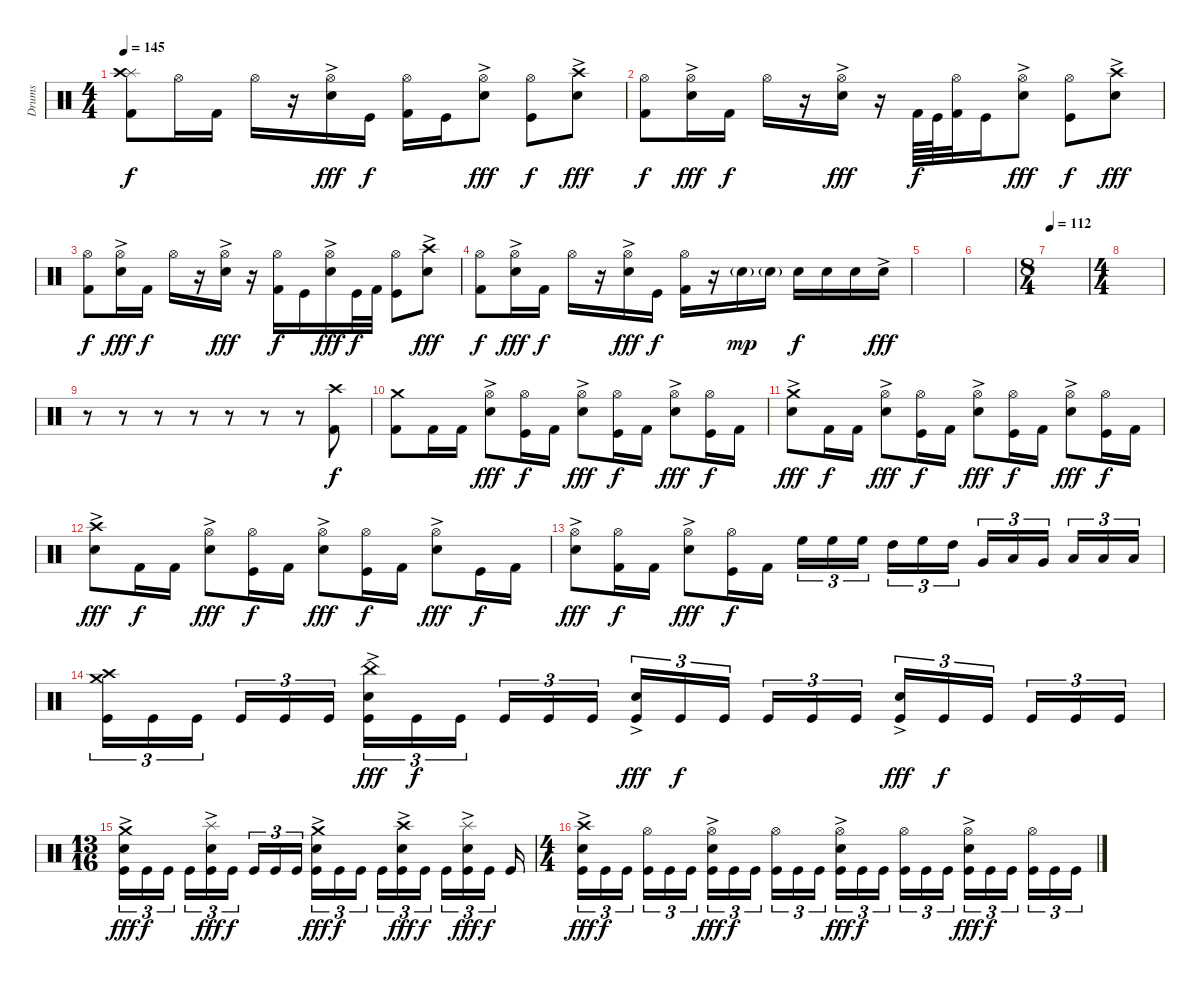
\track ("Drums" "Drums") {instrument percussion}
\staff {score}
\articulation defaults
\ts (4 4)
\tempo 145
\clef neutral
\ks c
("Splash (hit)" "Crash high (hit)" "Kick (hit) 2").8{dy f} "Hi-Hat (open)".16 "Kick (hit) 2".16 "Hi-Hat (open)".16 r.16 ("Hi-Hat (open)" "Electric Snare (hit)"{ac}).16{dy fff} "Kick (hit)".16{dy f} ("Hi-Hat (open)" "Kick (hit) 2").16 "Kick (hit)".16 ("Hi-Hat (open)" "Electric Snare (hit)"{ac}).8{dy fff} ("Hi-Hat (open)" "Kick (hit)").8{dy f} ("Crash high (hit)" "Electric Snare (hit)"{ac}).8{dy fff} |
("Hi-Hat (open)" "Kick (hit) 2").8{dy f} ("Hi-Hat (open)" "Electric Snare (hit)"{ac}).16{dy fff} "Kick (hit) 2".16{dy f} "Hi-Hat (open)".16 r.16 ("Hi-Hat (open)" "Electric Snare (hit)"{ac}).16{dy fff} r.16 "Kick (hit) 2".64{dy f} "Kick (hit)".64 ("Hi-Hat (open)" "Kick (hit) 2").32 "Kick (hit)".16 ("Hi-Hat (open)" "Electric Snare (hit)"{ac}).8{dy fff} ("Hi-Hat (open)" "Kick (hit)").8{dy f} ("Crash high (hit)" "Electric Snare (hit)"{ac}).8{dy fff} |
("Hi-Hat (open)" "Kick (hit) 2").8{dy f} ("Hi-Hat (open)" "Electric Snare (hit)"{ac}).16{dy fff} "Kick (hit) 2".16{dy f} "Hi-Hat (open)".16 r.16 ("Hi-Hat (open)" "Electric Snare (hit)"{ac}).16{dy fff} r.16 ("Hi-Hat (open)" "Kick (hit) 2").16{dy f} "Kick (hit)".16 ("Hi-Hat (open)" "Electric Snare (hit)"{ac}).16{dy fff} "Kick (hit)".32{dy f} "Kick (hit) 2".32 ("Hi-Hat (open)" "Kick (hit)").8 ("Crash high (hit)" "Electric Snare (hit)"{ac}).8{dy fff} |
("Hi-Hat (open)" "Kick (hit) 2").8{dy f} ("Hi-Hat (open)" "Electric Snare (hit)"{ac}).16{dy fff} "Kick (hit) 2".16{dy f} "Hi-Hat (open)".16 r.16 ("Hi-Hat (open)" "Electric Snare (hit)"{ac}).16{dy fff} "Kick (hit)".16{dy f} ("Hi-Hat (open)" "Kick (hit) 2").16 r.16 "Electric Snare (hit)"{g}.16{dy mp} "Electric Snare (hit)"{g}.16 "Electric Snare (hit)".16{dy f} "Electric Snare (hit)".16 "Electric Snare (hit)".16 "Electric Snare (hit)"{ac}.16{dy fff} |
|
|
\ts (8 4)
\tempo 112
|
\ts (4 4)
|
r.8 r.8 r.8 r.8 r.8 r.8 r.8 ("Crash high (hit)" "Kick (hit) 2").8{dy f} |
("Crash medium (hit)" "Kick (hit) 2").8 "Kick (hit) 2".16 "Kick (hit) 2".16 ("Hi-Hat (open)" "Electric Snare (hit)"{ac}).8{dy fff} ("Hi-Hat (open)" "Kick (hit)").16{dy f} "Kick (hit) 2".16 ("Hi-Hat (open)" "Electric Snare (hit)"{ac}).8{dy fff} ("Hi-Hat (open)" "Kick (hit)").16{dy f} "Kick (hit) 2".16 ("Hi-Hat (open)" "Electric Snare (hit)"{ac}).8{dy fff} ("Hi-Hat (open)" "Kick (hit)").16{dy f} "Kick (hit) 2".16 |
("Crash medium (hit)" "Electric Snare (hit)"{ac}).8{dy fff} "Kick (hit) 2".16{dy f} "Kick (hit) 2".16 ("Hi-Hat (open)" "Electric Snare (hit)"{ac}).8{dy fff} ("Hi-Hat (open)" "Kick (hit)").16{dy f} "Kick (hit) 2".16 ("Hi-Hat (open)" "Electric Snare (hit)"{ac}).8{dy fff} ("Hi-Hat (open)" "Kick (hit)").16{dy f} "Kick (hit) 2".16 ("Hi-Hat (open)" "Electric Snare (hit)"{ac}).8{dy fff} ("Hi-Hat (open)" "Kick (hit)").16{dy f} "Kick (hit) 2".16 |
("Crash high (hit)" "Electric Snare (hit)"{ac}).8{dy fff} "Kick (hit) 2".16{dy f} "Kick (hit) 2".16 ("Hi-Hat (open)" "Electric Snare (hit)"{ac}).8{dy fff} ("Hi-Hat (open)" "Kick (hit)").16{dy f} "Kick (hit) 2".16 ("Hi-Hat (open)" "Electric Snare (hit)"{ac}).8{dy fff} ("Hi-Hat (open)" "Kick (hit)").16{dy f} "Kick (hit) 2".16 ("Hi-Hat (open)" "Electric Snare (hit)"{ac}).8{dy fff} "Kick (hit)".16{dy f} "Kick (hit) 2".16 |
("Hi-Hat (open)" "Electric Snare (hit)"{ac}).8{dy fff} ("Hi-Hat (open)" "Kick (hit) 2").16{dy f} "Kick (hit) 2".16 ("Hi-Hat (open)" "Electric Snare (hit)"{ac}).8{dy fff} ("Hi-Hat (open)" "Kick (hit)").16{dy f} "Kick (hit) 2".16 "High Floor Tom (hit)".16{tu (3 2)} "High Floor Tom (hit)".16{tu (3 2)} "High Floor Tom (hit)".16{tu (3 2)} "High Tom (hit)".16{tu (3 2)} "High Floor Tom (hit)".16{tu (3 2)} "High Tom (hit)".16{tu (3 2)} "Very Low Tom (hit)".16{tu (3 2)} "Low Floor Tom (hit)".16{tu (3 2)} "Very Low Tom (hit)".16{tu (3 2)} "Low Tom (hit)".16{tu (3 2)} "Low Tom (hit)".16{tu (3 2)} "Low Tom (hit)".16{tu (3 2)} |
("Crash medium (hit)" "Crash high (hit)" "Kick (hit)").16{tu (3 2)} "Kick (hit)".16{tu (3 2)} "Kick (hit)".16{tu (3 2)} "Kick (hit)".16{tu (3 2)} "Kick (hit)".16{tu (3 2)} "Kick (hit)".16{tu (3 2)} ("China (hit)" "Electric Snare (hit)"{ac} "Kick (hit)").16{tu (3 2) dy fff} "Kick (hit)".16{tu (3 2) dy f} "Kick (hit)".16{tu (3 2)} "Kick (hit)".16{tu (3 2)} "Kick (hit)".16{tu (3 2)} "Kick (hit)".16{tu (3 2)} ("Electric Snare (hit)"{ac} "Kick (hit)").16{tu (3 2) dy fff} "Kick (hit)".16{tu (3 2) dy f} "Kick (hit)".16{tu (3 2)} "Kick (hit)".16{tu (3 2)} "Kick (hit)".16{tu (3 2)} "Kick (hit)".16{tu (3 2)} ("Electric Snare (hit)"{ac} "Kick (hit)").16{tu (3 2) dy fff} "Kick (hit)".16{tu (3 2) dy f} "Kick (hit)".16{tu (3 2)} "Kick (hit)".16{tu (3 2)} "Kick (hit)".16{tu (3 2)} "Kick (hit)".16{tu (3 2)} |
\ts (13 16)
("Crash medium (hit)"{ac} "Electric Snare (hit)"{ac} "Kick (hit)").16{tu (3 2) dy fff} "Kick (hit)".16{tu (3 2) dy f} "Kick (hit)".16{tu (3 2)} "Kick (hit)".16{tu (3 2)} ("Splash (hit)" "Electric Snare (hit)"{ac} "Kick (hit)").16{tu (3 2) dy fff} "Kick (hit)".16{tu (3 2) dy f} "Kick (hit)".16{tu (3 2)} "Kick (hit)".16{tu (3 2)} "Kick (hit)".16{tu (3 2)} ("Crash medium (hit)"{ac} "Electric Snare (hit)"{ac} "Kick (hit)").16{tu (3 2) dy fff} "Kick (hit)".16{tu (3 2) dy f} "Kick (hit)".16{tu (3 2)} "Kick (hit)".16{tu (3 2)} ("Crash high (hit)" "Electric Snare (hit)"{ac} "Kick (hit)").16{tu (3 2) dy fff} "Kick (hit)".16{tu (3 2) dy f} "Kick (hit)".16{tu (3 2)} ("Splash (hit)" "Electric Snare (hit)"{ac} "Kick (hit)").16{tu (3 2) dy fff} "Kick (hit)".16{tu (3 2) dy f} "Kick (hit)".16 |
\ts (4 4)
("Crash high (hit)" "Electric Snare (hit)"{ac} "Kick (hit)").16{tu (3 2) dy fff} "Kick (hit)".16{tu (3 2) dy f} "Kick (hit)".16{tu (3 2)} ("Hi-Hat (open)" "Kick (hit)").16{tu (3 2)} "Kick (hit)".16{tu (3 2)} "Kick (hit)".16{tu (3 2)} ("Hi-Hat (open)" "Electric Snare (hit)"{ac} "Kick (hit)").16{tu (3 2) dy fff} "Kick (hit)".16{tu (3 2) dy f} "Kick (hit)".16{tu (3 2)} ("Hi-Hat (open)" "Kick (hit)").16{tu (3 2)} "Kick (hit)".16{tu (3 2)} "Kick (hit)".16{tu (3 2)} ("Hi-Hat (open)" "Electric Snare (hit)"{ac} "Kick (hit)").16{tu (3 2) dy fff} "Kick (hit)".16{tu (3 2) dy f} "Kick (hit)".16{tu (3 2)} ("Hi-Hat (open)" "Kick (hit)").16{tu (3 2)} "Kick (hit)".16{tu (3 2)} "Kick (hit)".16{tu (3 2)} ("Hi-Hat (open)" "Electric Snare (hit)"{ac} "Kick (hit)").16{tu (3 2) dy fff} "Kick (hit)".16{tu (3 2) dy f} "Kick (hit)".16{tu (3 2)} ("Hi-Hat (open)" "Kick (hit)").16{tu (3 2)} "Kick (hit)".16{tu (3 2)} "Kick (hit)".16{tu (3 2)}
